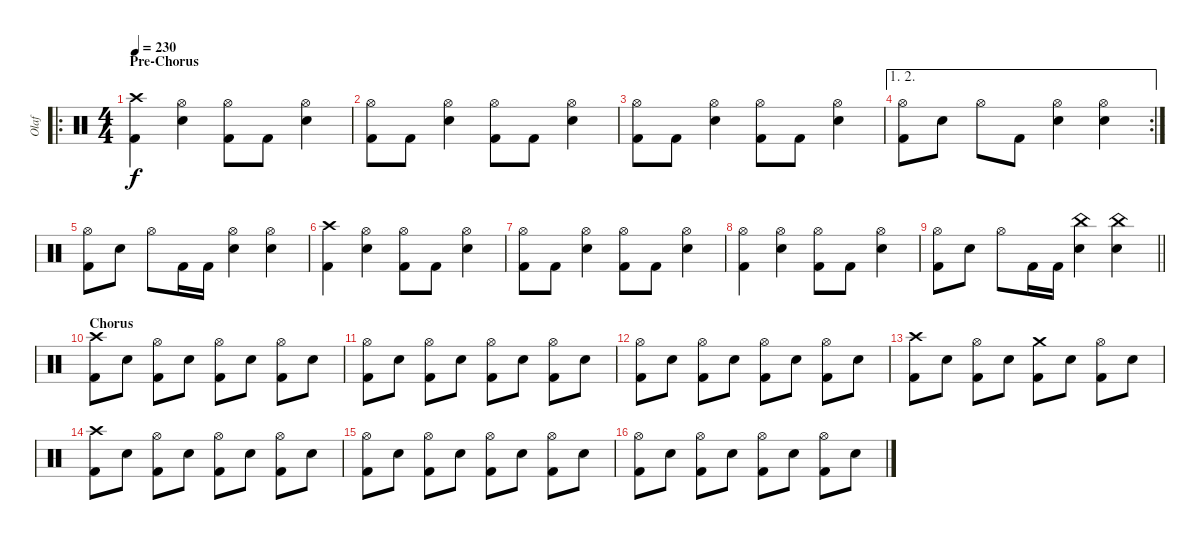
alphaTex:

\track ("Olaf" "Olaf") {instrument percussion}
\staff {score}
\articulation defaults
\ro
\ts (4 4)
\section ("" "Pre-Chorus")
\tempo 230
\clef neutral
\ks c
("Crash high (hit)" "Kick (hit) 2").4{dy f} ("Hi-Hat (open)" "Electric Snare (hit)").4 ("Hi-Hat (open)" "Kick (hit) 2").8 "Kick (hit) 2".8 ("Hi-Hat (open)" "Electric Snare (hit)").4 |
("Hi-Hat (open)" "Kick (hit) 2").8 "Kick (hit) 2".8 ("Hi-Hat (open)" "Electric Snare (hit)").4 ("Hi-Hat (open)" "Kick (hit) 2").8 "Kick (hit) 2".8 ("Hi-Hat (open)" "Electric Snare (hit)").4 |
("Hi-Hat (open)" "Kick (hit) 2").8 "Kick (hit) 2".8 ("Hi-Hat (open)" "Electric Snare (hit)").4 ("Hi-Hat (open)" "Kick (hit) 2").8 "Kick (hit) 2".8 ("Hi-Hat (open)" "Electric Snare (hit)").4 |
\ae (1 2)
\rc 2
("Hi-Hat (open)" "Kick (hit) 2").8 "Electric Snare (hit)".8 "Hi-Hat (open)".8 "Kick (hit) 2".8 ("Hi-Hat (open)" "Electric Snare (hit)").4 ("Hi-Hat (open)" "Electric Snare (hit)").4 |
("Hi-Hat (open)" "Kick (hit) 2").8 "Electric Snare (hit)".8 "Hi-Hat (open)".8 "Kick (hit) 2".16 "Kick (hit) 2".16 ("Hi-Hat (open)" "Electric Snare (hit)").4 ("Hi-Hat (open)" "Electric Snare (hit)").4 |
("Crash high (hit)" "Kick (hit) 2").4 ("Hi-Hat (open)" "Electric Snare (hit)").4 ("Hi-Hat (open)" "Kick (hit) 2").8 "Kick (hit) 2".8 ("Hi-Hat (open)" "Electric Snare (hit)").4 |
("Hi-Hat (open)" "Kick (hit) 2").8 "Kick (hit) 2".8 ("Hi-Hat (open)" "Electric Snare (hit)").4 ("Hi-Hat (open)" "Kick (hit) 2").8 "Kick (hit) 2".8 ("Hi-Hat (open)" "Electric Snare (hit)").4 |
("Hi-Hat (open)" "Kick (hit) 2").4 ("Hi-Hat (open)" "Electric Snare (hit)").4 ("Hi-Hat (open)" "Kick (hit) 2").8 "Kick (hit) 2".8 ("Hi-Hat (open)" "Electric Snare (hit)").4 |
\barLineRight lightlight
("Hi-Hat (open)" "Kick (hit) 2").8 "Electric Snare (hit)".8 "Hi-Hat (open)".8 "Kick (hit) 2".16 "Kick (hit) 2".16 ("China (hit)" "Electric Snare (hit)").4 ("China (hit)" "Electric Snare (hit)").4 |
\section ("" "Chorus")
("Crash high (hit)" "Kick (hit) 2").8 "Electric Snare (hit)".8 ("Hi-Hat (open)" "Kick (hit) 2").8 "Electric Snare (hit)".8 ("Hi-Hat (open)" "Kick (hit) 2").8 "Electric Snare (hit)".8 ("Hi-Hat (open)" "Kick (hit) 2").8 "Electric Snare (hit)".8 |
("Hi-Hat (open)" "Kick (hit) 2").8 "Electric Snare (hit)".8 ("Hi-Hat (open)" "Kick (hit) 2").8 "Electric Snare (hit)".8 ("Hi-Hat (open)" "Kick (hit) 2").8 "Electric Snare (hit)".8 ("Hi-Hat (open)" "Kick (hit) 2").8 "Electric Snare (hit)".8 |
("Hi-Hat (open)" "Kick (hit) 2").8 "Electric Snare (hit)".8 ("Hi-Hat (open)" "Kick (hit) 2").8 "Electric Snare (hit)".8 ("Hi-Hat (open)" "Kick (hit) 2").8 "Electric Snare (hit)".8 ("Hi-Hat (open)" "Kick (hit) 2").8 "Electric Snare (hit)".8 |
("Crash high (hit)" "Kick (hit) 2").8 "Electric Snare (hit)".8 ("Hi-Hat (open)" "Kick (hit) 2").8 "Electric Snare (hit)".8 ("Crash medium (hit)" "Kick (hit) 2").8 "Electric Snare (hit)".8 ("Hi-Hat (open)" "Kick (hit) 2").8 "Electric Snare (hit)".8 |
("Crash high (hit)" "Kick (hit) 2").8 "Electric Snare (hit)".8 ("Hi-Hat (open)" "Kick (hit) 2").8 "Electric Snare (hit)".8 ("Hi-Hat (open)" "Kick (hit) 2").8 "Electric Snare (hit)".8 ("Hi-Hat (open)" "Kick (hit) 2").8 "Electric Snare (hit)".8 |
("Hi-Hat (open)" "Kick (hit) 2").8 "Electric Snare (hit)".8 ("Hi-Hat (open)" "Kick (hit) 2").8 "Electric Snare (hit)".8 ("Hi-Hat (open)" "Kick (hit) 2").8 "Electric Snare (hit)".8 ("Hi-Hat (open)" "Kick (hit) 2").8 "Electric Snare (hit)".8 |
("Hi-Hat (open)" "Kick (hit) 2").8 "Electric Snare (hit)".8 ("Hi-Hat (open)" "Kick (hit) 2").8 "Electric Snare (hit)".8 ("Hi-Hat (open)" "Kick (hit) 2").8 "Electric Snare (hit)".8 ("Hi-Hat (open)" "Kick (hit) 2").8 "Electric Snare (hit)".8
